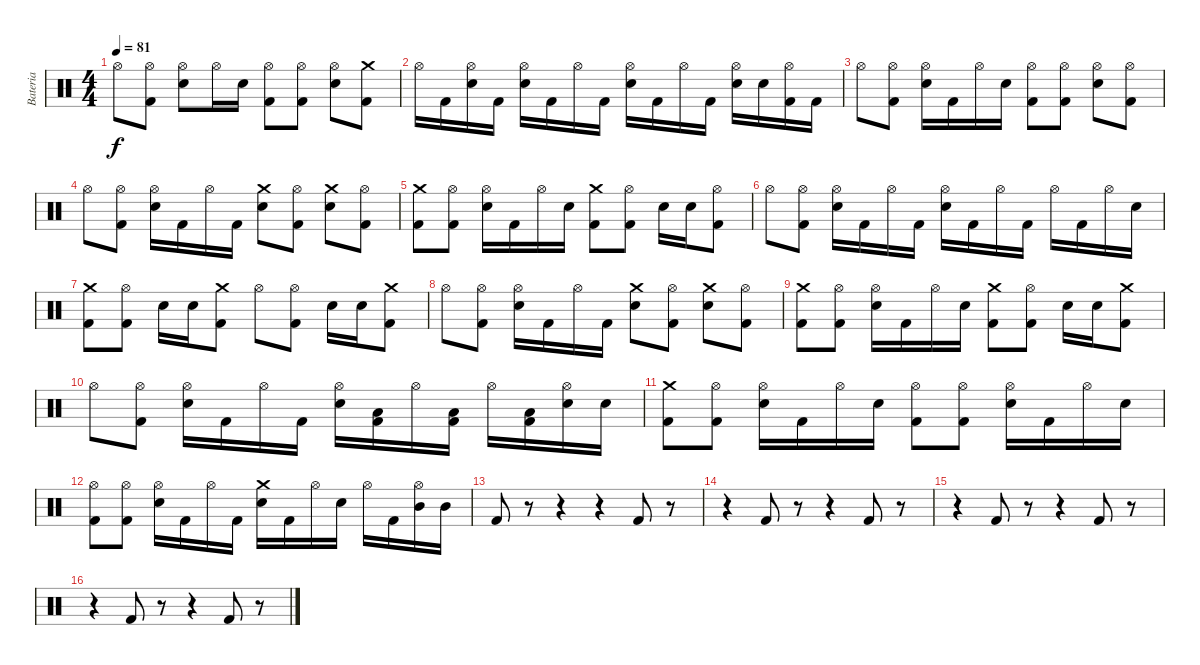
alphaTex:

\track ("Bateria" "Bateria") {instrument percussion}
\staff {score}
\articulation defaults
\ts (4 4)
\tempo 81
\clef neutral
\ks c "Hi-Hat (open)".8{dy f}
("Hi-Hat (open)" "Kick (hit) 2").8 ("Hi-Hat (open)" "Electric Snare (hit)").8 "Hi-Hat (open)".16 "Electric Snare (hit)".16 ("Hi-Hat (open)" "Kick (hit) 2").8 ("Hi-Hat (open)" "Kick (hit) 2").8 ("Hi-Hat (open)" "Electric Snare (hit)").8 ("Crash medium (hit)" "Kick (hit) 2").8 |
"Hi-Hat (open)".16 "Kick (hit) 2".16 ("Hi-Hat (open)" "Electric Snare (hit)").16 "Kick (hit) 2".16 ("Hi-Hat (open)" "Electric Snare (hit)").16 "Kick (hit) 2".16 "Hi-Hat (open)".16 "Kick (hit) 2".16 ("Hi-Hat (open)" "Electric Snare (hit)").16 "Kick (hit) 2".16 "Hi-Hat (open)".16 "Kick (hit) 2".16 ("Hi-Hat (open)" "Electric Snare (hit)").16 "Electric Snare (hit)".16 ("Hi-Hat (open)" "Kick (hit) 2").16 "Kick (hit) 2".16 |
"Hi-Hat (open)".8 ("Hi-Hat (open)" "Kick (hit) 2").8 ("Hi-Hat (open)" "Electric Snare (hit)").16 "Kick (hit) 2".16 "Hi-Hat (open)".16 "Electric Snare (hit)".16 ("Hi-Hat (open)" "Kick (hit) 2").8 ("Hi-Hat (open)" "Kick (hit) 2").8 ("Hi-Hat (open)" "Electric Snare (hit)").8 ("Hi-Hat (open)" "Kick (hit) 2").8 |
"Hi-Hat (open)".8 ("Hi-Hat (open)" "Kick (hit) 2").8 ("Hi-Hat (open)" "Electric Snare (hit)").16 "Kick (hit) 2".16 "Hi-Hat (open)".16 "Kick (hit) 2".16 ("Crash medium (hit)" "Electric Snare (hit)").8 ("Hi-Hat (open)" "Kick (hit) 2").8 ("Crash medium (hit)" "Electric Snare (hit)").8 ("Hi-Hat (open)" "Kick (hit) 2").8 |
("Crash medium (hit)" "Kick (hit) 2").8 ("Hi-Hat (open)" "Kick (hit) 2").8 ("Hi-Hat (open)" "Electric Snare (hit)").16 "Kick (hit) 2".16 "Hi-Hat (open)".16 "Electric Snare (hit)".16 ("Crash medium (hit)" "Kick (hit) 2").8 ("Hi-Hat (open)" "Kick (hit) 2").8 "Electric Snare (hit)".16 "Electric Snare (hit)".16 ("Hi-Hat (open)" "Kick (hit) 2").8 |
"Hi-Hat (open)".8 ("Hi-Hat (open)" "Kick (hit) 2").8 ("Hi-Hat (open)" "Electric Snare (hit)").16 "Kick (hit) 2".16 "Hi-Hat (open)".16 "Kick (hit) 2".16 ("Hi-Hat (open)" "Electric Snare (hit)").16 "Kick (hit) 2".16 "Hi-Hat (open)".16 "Kick (hit) 2".16 "Hi-Hat (open)".16 "Kick (hit) 2".16 "Hi-Hat (open)".16 "Electric Snare (hit)".16 |
("Crash medium (hit)" "Kick (hit) 2").8 ("Hi-Hat (open)" "Kick (hit) 2").8 "Electric Snare (hit)".16 "Electric Snare (hit)".16 ("Crash medium (hit)" "Kick (hit) 2").8 "Hi-Hat (open)".8 ("Hi-Hat (open)" "Kick (hit) 2").8 "Electric Snare (hit)".16 "Electric Snare (hit)".16 ("Crash medium (hit)" "Kick (hit) 2").8 |
"Hi-Hat (open)".8 ("Hi-Hat (open)" "Kick (hit) 2").8 ("Hi-Hat (open)" "Electric Snare (hit)").16 "Kick (hit) 2".16 "Hi-Hat (open)".16 "Kick (hit) 2".16 ("Crash medium (hit)" "Electric Snare (hit)").8 ("Hi-Hat (open)" "Kick (hit) 2").8 ("Crash medium (hit)" "Electric Snare (hit)").8 ("Hi-Hat (open)" "Kick (hit) 2").8 |
("Crash medium (hit)" "Kick (hit) 2").8 ("Hi-Hat (open)" "Kick (hit) 2").8 ("Hi-Hat (open)" "Electric Snare (hit)").16 "Kick (hit) 2".16 "Hi-Hat (open)".16 "Electric Snare (hit)".16 ("Crash medium (hit)" "Kick (hit) 2").8 ("Hi-Hat (open)" "Kick (hit) 2").8 "Electric Snare (hit)".16 "Electric Snare (hit)".16 ("Crash medium (hit)" "Kick (hit) 2").8 |
"Hi-Hat (open)".8 ("Hi-Hat (open)" "Kick (hit) 2").8 ("Hi-Hat (open)" "Electric Snare (hit)").16 "Kick (hit) 2".16 "Hi-Hat (open)".16 "Kick (hit) 2".16 ("Hi-Hat (open)" "Electric Snare (hit)").16 ("Low Tom (hit)" "Kick (hit) 2").16 "Hi-Hat (open)".16 ("Low Tom (hit)" "Kick (hit) 2").16 "Hi-Hat (open)".16 ("Low Tom (hit)" "Kick (hit) 2").16 ("Hi-Hat (open)" "Electric Snare (hit)").16 "Electric Snare (hit)".16 |
("Crash medium (hit)" "Kick (hit) 2").8 ("Hi-Hat (open)" "Kick (hit) 2").8 ("Hi-Hat (open)" "Electric Snare (hit)").16 "Kick (hit) 2".16 "Hi-Hat (open)".16 "Electric Snare (hit)".16 ("Hi-Hat (open)" "Kick (hit) 2").8 ("Hi-Hat (open)" "Kick (hit) 2").8 ("Hi-Hat (open)" "Electric Snare (hit)").16 "Kick (hit) 2".16 "Hi-Hat (open)".16 "Electric Snare (hit)".16 |
("Hi-Hat (open)" "Kick (hit) 2").8 ("Hi-Hat (open)" "Kick (hit) 2").8 ("Hi-Hat (open)" "Electric Snare (hit)").16 "Kick (hit) 2".16 "Hi-Hat (open)".16 "Kick (hit) 2".16 ("Crash medium (hit)" "Electric Snare (hit)").16 "Kick (hit) 2".16 "Hi-Hat (open)".16 "Electric Snare (hit)".16 "Hi-Hat (open)".16 "Kick (hit) 2".16 ("Hi-Hat (open)" "Mid Tom (hit)").16 "Mid Tom (hit)".16 |
"Kick (hit) 2".8 r.8 r.4 r.4 "Kick (hit) 2".8 r.8 |
r.4 "Kick (hit) 2".8 r.8 r.4 "Kick (hit) 2".8 r.8 |
r.4 "Kick (hit) 2".8 r.8 r.4 "Kick (hit) 2".8 r.8 |
r.4 "Kick (hit) 2".8 r.8 r.4 "Kick (hit) 2".8 r.8
